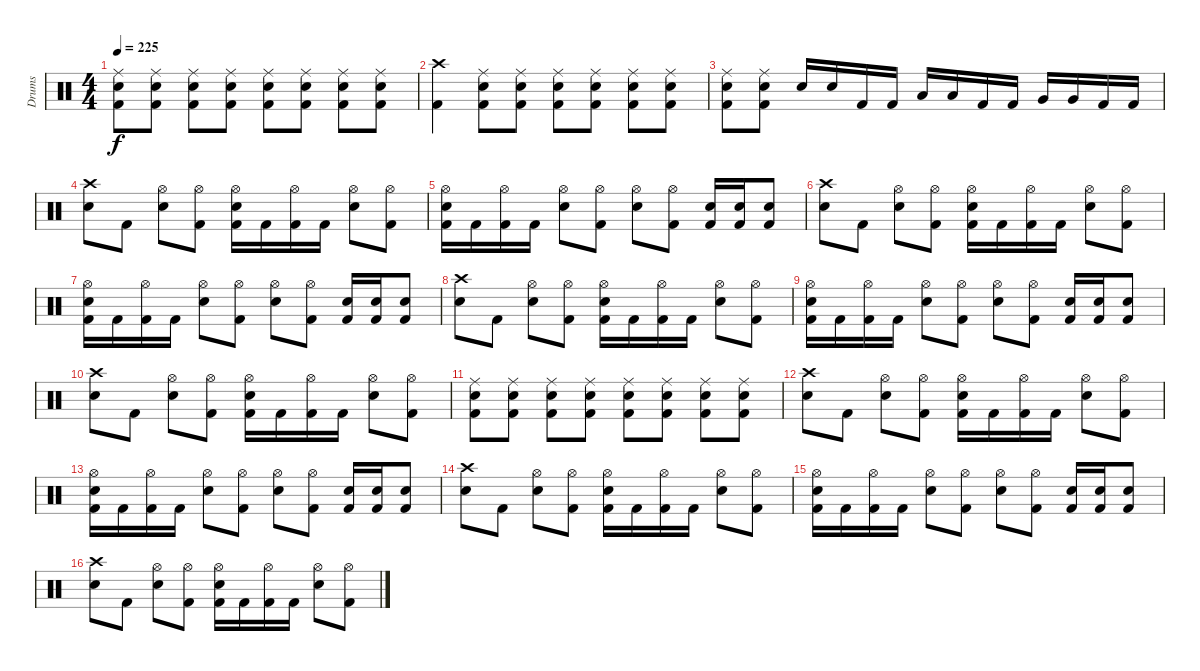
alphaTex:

\track ("Drums" "Drums") {instrument percussion}
\staff {score}
\articulation defaults
\ts (4 4)
\tempo 225
\clef neutral
\ks c
("Ride (middle)" "Electric Snare (hit)" "Kick (hit) 2").8{dy f} ("Ride (middle)" "Electric Snare (hit)" "Kick (hit) 2").8 ("Ride (middle)" "Electric Snare (hit)" "Kick (hit) 2").8 ("Ride (middle)" "Electric Snare (hit)" "Kick (hit) 2").8 ("Ride (middle)" "Electric Snare (hit)" "Kick (hit) 2").8 ("Ride (middle)" "Electric Snare (hit)" "Kick (hit) 2").8 ("Ride (middle)" "Electric Snare (hit)" "Kick (hit) 2").8 ("Ride (middle)" "Electric Snare (hit)" "Kick (hit) 2").8 |
("Crash high (hit)" "Kick (hit) 2").4 ("Ride (middle)" "Electric Snare (hit)" "Kick (hit) 2").8 ("Ride (middle)" "Electric Snare (hit)" "Kick (hit) 2").8 ("Ride (middle)" "Electric Snare (hit)" "Kick (hit) 2").8 ("Ride (middle)" "Electric Snare (hit)" "Kick (hit) 2").8 ("Ride (middle)" "Electric Snare (hit)" "Kick (hit) 2").8 ("Ride (middle)" "Electric Snare (hit)" "Kick (hit) 2").8 |
("Ride (middle)" "Electric Snare (hit)" "Kick (hit) 2").8 ("Ride (middle)" "Electric Snare (hit)" "Kick (hit) 2").8 "Electric Snare (hit)".16 "Electric Snare (hit)".16 "Kick (hit) 2".16 "Kick (hit) 2".16 "Low Tom (hit)".16 "Low Tom (hit)".16 "Kick (hit) 2".16 "Kick (hit) 2".16 "Very Low Tom (hit)".16 "Very Low Tom (hit)".16 "Kick (hit) 2".16 "Kick (hit) 2".16 |
("Crash high (hit)" "Electric Snare (hit)").8 "Kick (hit) 2".8 ("Hi-Hat (open)" "Electric Snare (hit)").8 ("Hi-Hat (open)" "Kick (hit) 2").8 ("Hi-Hat (open)" "Electric Snare (hit)" "Kick (hit) 2").16 "Kick (hit) 2".16 ("Hi-Hat (open)" "Kick (hit) 2").16 "Kick (hit) 2".16 ("Hi-Hat (open)" "Electric Snare (hit)").8 ("Hi-Hat (open)" "Kick (hit) 2").8 |
("Hi-Hat (open)" "Electric Snare (hit)" "Kick (hit) 2").16 "Kick (hit) 2".16 ("Hi-Hat (open)" "Kick (hit) 2").16 "Kick (hit) 2".16 ("Hi-Hat (open)" "Electric Snare (hit)").8 ("Hi-Hat (open)" "Kick (hit) 2").8 ("Hi-Hat (open)" "Electric Snare (hit)").8 ("Hi-Hat (open)" "Kick (hit) 2").8 ("Electric Snare (hit)" "Kick (hit) 2").16 ("Electric Snare (hit)" "Kick (hit) 2").16 ("Electric Snare (hit)" "Kick (hit) 2").8 |
("Crash high (hit)" "Electric Snare (hit)").8 "Kick (hit) 2".8 ("Hi-Hat (open)" "Electric Snare (hit)").8 ("Hi-Hat (open)" "Kick (hit) 2").8 ("Hi-Hat (open)" "Electric Snare (hit)" "Kick (hit) 2").16 "Kick (hit) 2".16 ("Hi-Hat (open)" "Kick (hit) 2").16 "Kick (hit) 2".16 ("Hi-Hat (open)" "Electric Snare (hit)").8 ("Hi-Hat (open)" "Kick (hit) 2").8 |
("Hi-Hat (open)" "Electric Snare (hit)" "Kick (hit) 2").16 "Kick (hit) 2".16 ("Hi-Hat (open)" "Kick (hit) 2").16 "Kick (hit) 2".16 ("Hi-Hat (open)" "Electric Snare (hit)").8 ("Hi-Hat (open)" "Kick (hit) 2").8 ("Hi-Hat (open)" "Electric Snare (hit)").8 ("Hi-Hat (open)" "Kick (hit) 2").8 ("Electric Snare (hit)" "Kick (hit) 2").16 ("Electric Snare (hit)" "Kick (hit) 2").16 ("Electric Snare (hit)" "Kick (hit) 2").8 |
("Crash high (hit)" "Electric Snare (hit)").8 "Kick (hit) 2".8 ("Hi-Hat (open)" "Electric Snare (hit)").8 ("Hi-Hat (open)" "Kick (hit) 2").8 ("Hi-Hat (open)" "Electric Snare (hit)" "Kick (hit) 2").16 "Kick (hit) 2".16 ("Hi-Hat (open)" "Kick (hit) 2").16 "Kick (hit) 2".16 ("Hi-Hat (open)" "Electric Snare (hit)").8 ("Hi-Hat (open)" "Kick (hit) 2").8 |
("Hi-Hat (open)" "Electric Snare (hit)" "Kick (hit) 2").16 "Kick (hit) 2".16 ("Hi-Hat (open)" "Kick (hit) 2").16 "Kick (hit) 2".16 ("Hi-Hat (open)" "Electric Snare (hit)").8 ("Hi-Hat (open)" "Kick (hit) 2").8 ("Hi-Hat (open)" "Electric Snare (hit)").8 ("Hi-Hat (open)" "Kick (hit) 2").8 ("Electric Snare (hit)" "Kick (hit) 2").16 ("Electric Snare (hit)" "Kick (hit) 2").16 ("Electric Snare (hit)" "Kick (hit) 2").8 |
("Crash high (hit)" "Electric Snare (hit)").8 "Kick (hit) 2".8 ("Hi-Hat (open)" "Electric Snare (hit)").8 ("Hi-Hat (open)" "Kick (hit) 2").8 ("Hi-Hat (open)" "Electric Snare (hit)" "Kick (hit) 2").16 "Kick (hit) 2".16 ("Hi-Hat (open)" "Kick (hit) 2").16 "Kick (hit) 2".16 ("Hi-Hat (open)" "Electric Snare (hit)").8 ("Hi-Hat (open)" "Kick (hit) 2").8 |
("Ride (middle)" "Electric Snare (hit)" "Kick (hit) 2").8 ("Ride (middle)" "Electric Snare (hit)" "Kick (hit) 2").8 ("Ride (middle)" "Electric Snare (hit)" "Kick (hit) 2").8 ("Ride (middle)" "Electric Snare (hit)" "Kick (hit) 2").8 ("Ride (middle)" "Electric Snare (hit)" "Kick (hit) 2").8 ("Ride (middle)" "Electric Snare (hit)" "Kick (hit) 2").8 ("Ride (middle)" "Electric Snare (hit)" "Kick (hit) 2").8 ("Ride (middle)" "Electric Snare (hit)" "Kick (hit) 2").8 |
("Crash high (hit)" "Electric Snare (hit)").8 "Kick (hit) 2".8 ("Hi-Hat (open)" "Electric Snare (hit)").8 ("Hi-Hat (open)" "Kick (hit) 2").8 ("Hi-Hat (open)" "Electric Snare (hit)" "Kick (hit) 2").16 "Kick (hit) 2".16 ("Hi-Hat (open)" "Kick (hit) 2").16 "Kick (hit) 2".16 ("Hi-Hat (open)" "Electric Snare (hit)").8 ("Hi-Hat (open)" "Kick (hit) 2").8 |
("Hi-Hat (open)" "Electric Snare (hit)" "Kick (hit) 2").16 "Kick (hit) 2".16 ("Hi-Hat (open)" "Kick (hit) 2").16 "Kick (hit) 2".16 ("Hi-Hat (open)" "Electric Snare (hit)").8 ("Hi-Hat (open)" "Kick (hit) 2").8 ("Hi-Hat (open)" "Electric Snare (hit)").8 ("Hi-Hat (open)" "Kick (hit) 2").8 ("Electric Snare (hit)" "Kick (hit) 2").16 ("Electric Snare (hit)" "Kick (hit) 2").16 ("Electric Snare (hit)" "Kick (hit) 2").8 |
("Crash high (hit)" "Electric Snare (hit)").8 "Kick (hit) 2".8 ("Hi-Hat (open)" "Electric Snare (hit)").8 ("Hi-Hat (open)" "Kick (hit) 2").8 ("Hi-Hat (open)" "Electric Snare (hit)" "Kick (hit) 2").16 "Kick (hit) 2".16 ("Hi-Hat (open)" "Kick (hit) 2").16 "Kick (hit) 2".16 ("Hi-Hat (open)" "Electric Snare (hit)").8 ("Hi-Hat (open)" "Kick (hit) 2").8 |
("Hi-Hat (open)" "Electric Snare (hit)" "Kick (hit) 2").16 "Kick (hit) 2".16 ("Hi-Hat (open)" "Kick (hit) 2").16 "Kick (hit) 2".16 ("Hi-Hat (open)" "Electric Snare (hit)").8 ("Hi-Hat (open)" "Kick (hit) 2").8 ("Hi-Hat (open)" "Electric Snare (hit)").8 ("Hi-Hat (open)" "Kick (hit) 2").8 ("Electric Snare (hit)" "Kick (hit) 2").16 ("Electric Snare (hit)" "Kick (hit) 2").16 ("Electric Snare (hit)" "Kick (hit) 2").8 |
("Crash high (hit)" "Electric Snare (hit)").8 "Kick (hit) 2".8 ("Hi-Hat (open)" "Electric Snare (hit)").8 ("Hi-Hat (open)" "Kick (hit) 2").8 ("Hi-Hat (open)" "Electric Snare (hit)" "Kick (hit) 2").16 "Kick (hit) 2".16 ("Hi-Hat (open)" "Kick (hit) 2").16 "Kick (hit) 2".16 ("Hi-Hat (open)" "Electric Snare (hit)").8 ("Hi-Hat (open)" "Kick (hit) 2").8
